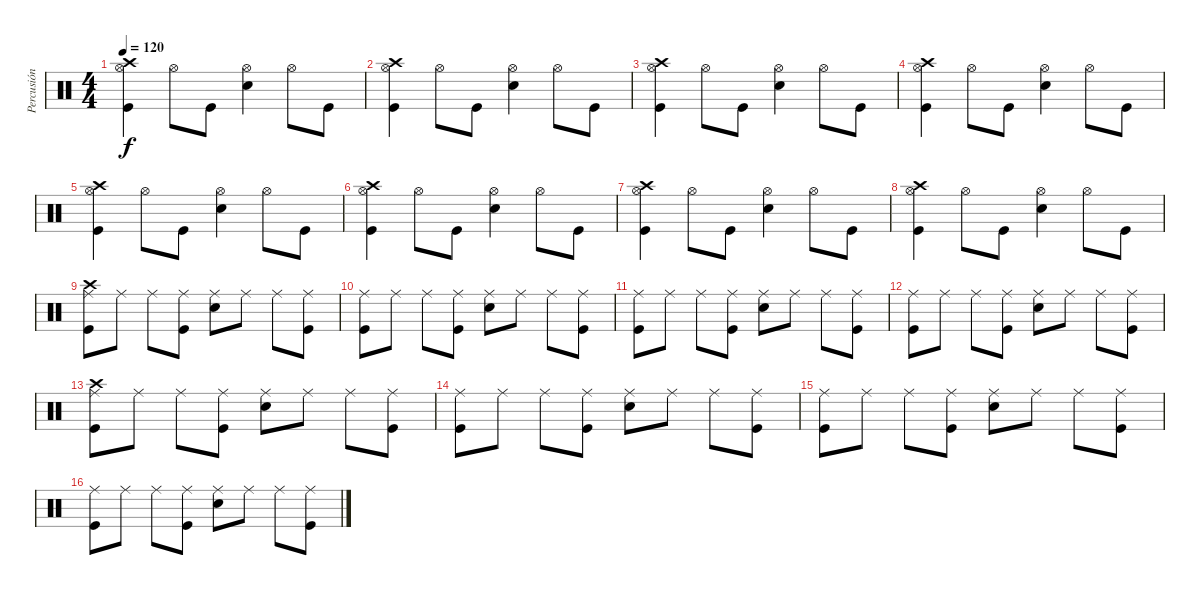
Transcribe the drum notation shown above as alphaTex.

\track ("Percusión" "Percusión") {instrument percussion}
\staff {score}
\articulation defaults
\ts (4 4)
\tempo 120
\clef neutral
\ks c
("Kick (hit)" "Hi-Hat (open)" "Crash high (hit)").4{dy f} "Hi-Hat (open)".8 "Kick (hit)".8 ("Hi-Hat (open)" "Snare (hit) 2").4 "Hi-Hat (open)".8 "Kick (hit)".8 |
("Kick (hit)" "Hi-Hat (open)" "Crash high (hit)").4 "Hi-Hat (open)".8 "Kick (hit)".8 ("Hi-Hat (open)" "Snare (hit) 2").4 "Hi-Hat (open)".8 "Kick (hit)".8 |
("Kick (hit)" "Hi-Hat (open)" "Crash high (hit)").4 "Hi-Hat (open)".8 "Kick (hit)".8 ("Hi-Hat (open)" "Snare (hit) 2").4 "Hi-Hat (open)".8 "Kick (hit)".8 |
("Kick (hit)" "Hi-Hat (open)" "Crash high (hit)").4 "Hi-Hat (open)".8 "Kick (hit)".8 ("Hi-Hat (open)" "Snare (hit) 2").4 "Hi-Hat (open)".8 "Kick (hit)".8 |
("Kick (hit)" "Hi-Hat (open)" "Crash high (hit)").4 "Hi-Hat (open)".8 "Kick (hit)".8 ("Hi-Hat (open)" "Snare (hit) 2").4 "Hi-Hat (open)".8 "Kick (hit)".8 |
("Kick (hit)" "Hi-Hat (open)" "Crash high (hit)").4 "Hi-Hat (open)".8 "Kick (hit)".8 ("Hi-Hat (open)" "Snare (hit) 2").4 "Hi-Hat (open)".8 "Kick (hit)".8 |
("Kick (hit)" "Hi-Hat (open)" "Crash high (hit)").4 "Hi-Hat (open)".8 "Kick (hit)".8 ("Hi-Hat (open)" "Snare (hit) 2").4 "Hi-Hat (open)".8 "Kick (hit)".8 |
("Kick (hit)" "Hi-Hat (open)" "Crash high (hit)").4 "Hi-Hat (open)".8 "Kick (hit)".8 ("Hi-Hat (open)" "Snare (hit) 2").4 "Hi-Hat (open)".8 "Kick (hit)".8 |
("Ride (middle)" "Kick (hit)" "Crash high (hit)").8 "Ride (middle)".8 "Ride (middle)".8 ("Ride (middle)" "Kick (hit)").8 ("Ride (middle)" "Snare (hit) 2").8 "Ride (middle)".8 "Ride (middle)".8 ("Ride (middle)" "Kick (hit)").8 |
("Ride (middle)" "Kick (hit)").8 "Ride (middle)".8 "Ride (middle)".8 ("Ride (middle)" "Kick (hit)").8 ("Ride (middle)" "Snare (hit) 2").8 "Ride (middle)".8 "Ride (middle)".8 ("Ride (middle)" "Kick (hit)").8 |
("Ride (middle)" "Kick (hit)").8 "Ride (middle)".8 "Ride (middle)".8 ("Ride (middle)" "Kick (hit)").8 ("Ride (middle)" "Snare (hit) 2").8 "Ride (middle)".8 "Ride (middle)".8 ("Ride (middle)" "Kick (hit)").8 |
("Ride (middle)" "Kick (hit)").8 "Ride (middle)".8 "Ride (middle)".8 ("Ride (middle)" "Kick (hit)").8 ("Ride (middle)" "Snare (hit) 2").8 "Ride (middle)".8 "Ride (middle)".8 ("Ride (middle)" "Kick (hit)").8 |
("Ride (middle)" "Kick (hit)" "Crash high (hit)").8 "Ride (middle)".8 "Ride (middle)".8 ("Ride (middle)" "Kick (hit)").8 ("Ride (middle)" "Snare (hit) 2").8 "Ride (middle)".8 "Ride (middle)".8 ("Ride (middle)" "Kick (hit)").8 |
("Ride (middle)" "Kick (hit)").8 "Ride (middle)".8 "Ride (middle)".8 ("Ride (middle)" "Kick (hit)").8 ("Ride (middle)" "Snare (hit) 2").8 "Ride (middle)".8 "Ride (middle)".8 ("Ride (middle)" "Kick (hit)").8 |
("Ride (middle)" "Kick (hit)").8 "Ride (middle)".8 "Ride (middle)".8 ("Ride (middle)" "Kick (hit)").8 ("Ride (middle)" "Snare (hit) 2").8 "Ride (middle)".8 "Ride (middle)".8 ("Ride (middle)" "Kick (hit)").8 |
("Ride (middle)" "Kick (hit)").8 "Ride (middle)".8 "Ride (middle)".8 ("Ride (middle)" "Kick (hit)").8 ("Ride (middle)" "Snare (hit) 2").8 "Ride (middle)".8 "Ride (middle)".8 ("Ride (middle)" "Kick (hit)").8
